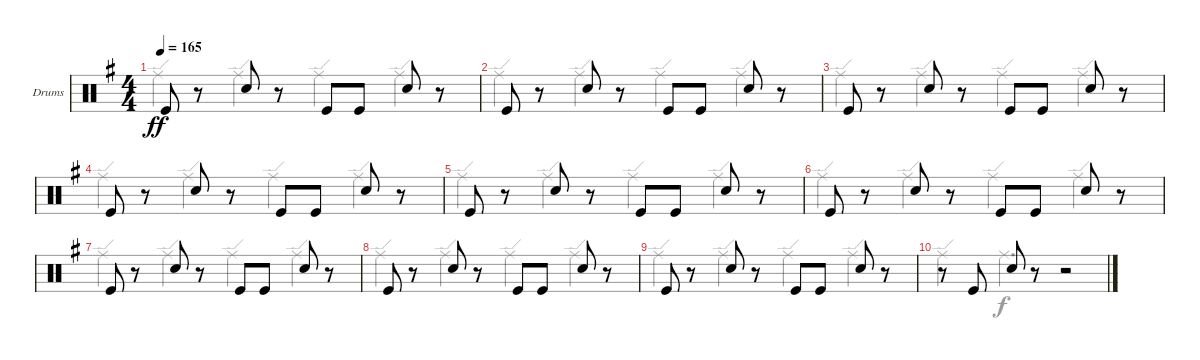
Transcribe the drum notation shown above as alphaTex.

\defaultSystemsLayout 4
\bracketExtendMode groupsimilarinstruments
\firstSystemTrackNameOrientation horizontal
\otherSystemsTrackNameOrientation horizontal
\track ("Fabrizio Moretti" "Drums") {instrument percussion}
\staff {score}
\articulation defaults
\voice
\ts (4 4)
\tempo 165
\clef neutral
\ks g "Kick (hit)".8{dy ff}
r.8 "Snare (hit) 2".8 r.8 "Kick (hit)".8 "Kick (hit)".8 "Snare (hit) 2".8 r.8 |
"Kick (hit)".8 r.8 "Snare (hit) 2".8 r.8 "Kick (hit)".8 "Kick (hit)".8 "Snare (hit) 2".8 r.8 |
"Kick (hit)".8 r.8 "Snare (hit) 2".8 r.8 "Kick (hit)".8 "Kick (hit)".8 "Snare (hit) 2".8 r.8 |
"Kick (hit)".8 r.8 "Snare (hit) 2".8 r.8 "Kick (hit)".8 "Kick (hit)".8 "Snare (hit) 2".8 r.8 |
"Kick (hit)".8 r.8 "Snare (hit) 2".8 r.8 "Kick (hit)".8 "Kick (hit)".8 "Snare (hit) 2".8 r.8 |
"Kick (hit)".8 r.8 "Snare (hit) 2".8 r.8 "Kick (hit)".8 "Kick (hit)".8 "Snare (hit) 2".8 r.8 |
"Kick (hit)".8 r.8 "Snare (hit) 2".8 r.8 "Kick (hit)".8 "Kick (hit)".8 "Snare (hit) 2".8 r.8 |
"Kick (hit)".8 r.8 "Snare (hit) 2".8 r.8 "Kick (hit)".8 "Kick (hit)".8 "Snare (hit) 2".8 r.8 |
"Kick (hit)".8 r.8 "Snare (hit) 2".8 r.8 "Kick (hit)".8 "Kick (hit)".8 "Snare (hit) 2".8 r.8 |
r.8 "Kick (hit)".8 "Snare (hit) 2".8 r.8 r.2 |
\voice
\clef neutral
\ottava regular
\simile none
\ks g "Ride (edge)".4{dy ff} "Ride (edge)".4 "Ride (edge)".4 "Ride (edge)".4
|
"Ride (edge)".4 "Ride (edge)".4 "Ride (edge)".4 "Ride (edge)".4 |
"Ride (edge)".4 "Ride (edge)".4 "Ride (edge)".4 "Ride (edge)".4 |
"Ride (edge)".4 "Ride (edge)".4 "Ride (edge)".4 "Ride (edge)".4 |
"Ride (edge)".4 "Ride (edge)".4 "Ride (edge)".4 "Ride (edge)".4 |
"Ride (edge)".4 "Ride (edge)".4 "Ride (edge)".4 "Ride (edge)".4 |
"Ride (edge)".4 "Ride (edge)".4 "Ride (edge)".4 "Ride (edge)".4 |
"Ride (edge)".4 "Ride (edge)".4 "Ride (edge)".4 "Ride (edge)".4 |
"Ride (edge)".4 "Ride (edge)".4 "Ride (edge)".4 "Ride (edge)".4 |
"Ride (edge)".4 "Ride (middle)".2{d dy f} |
